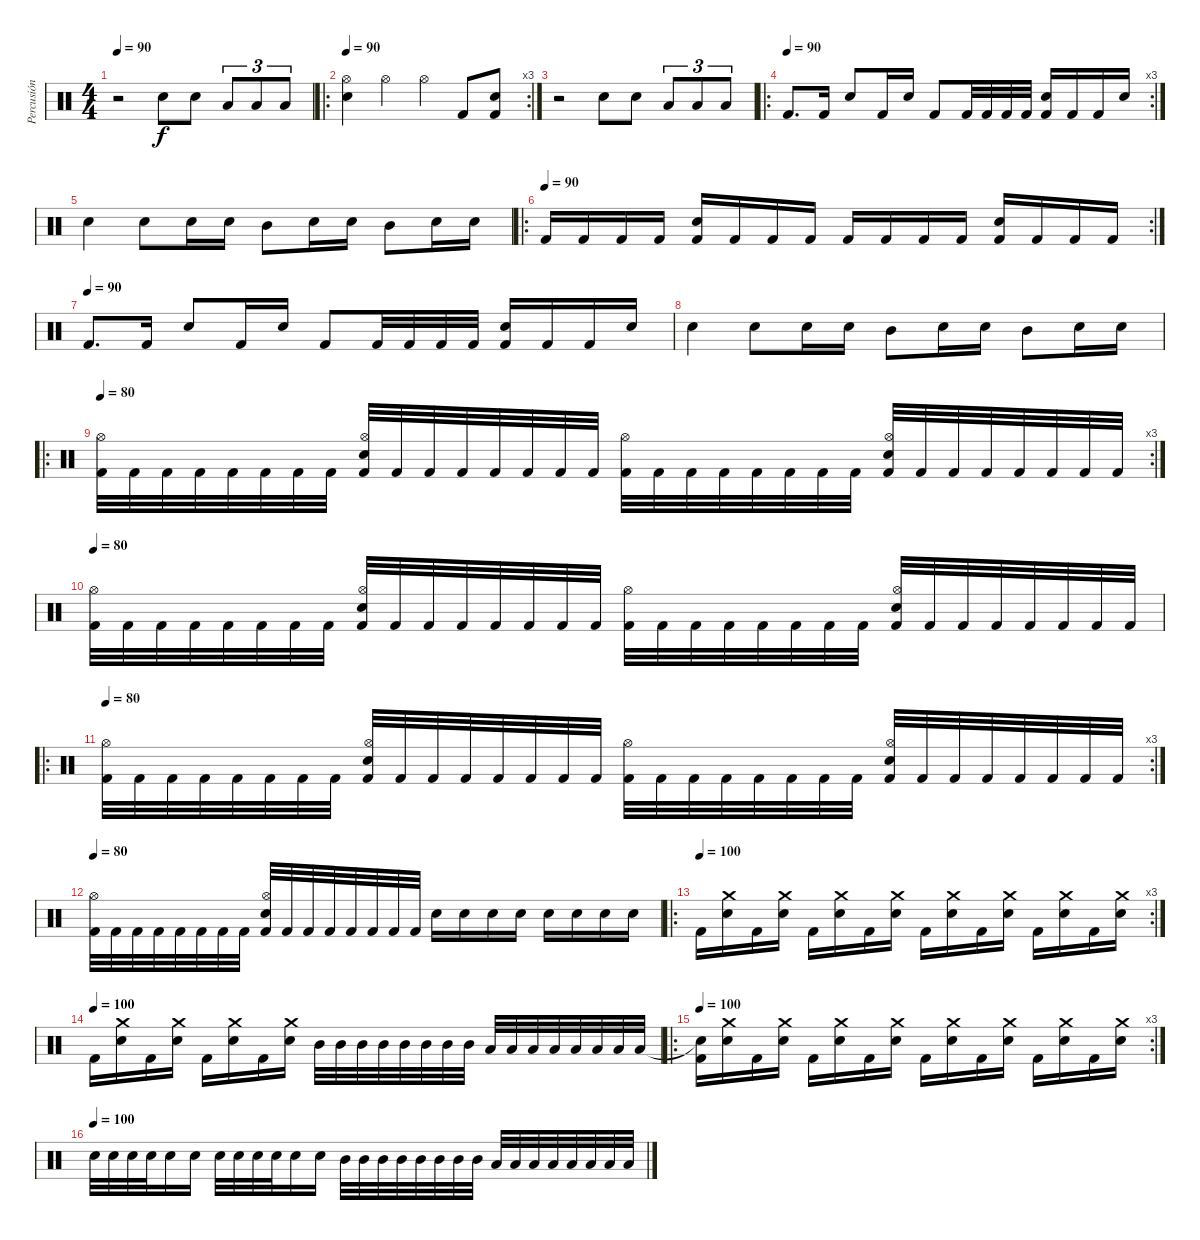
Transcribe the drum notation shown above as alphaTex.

\track ("Percusión" "Percusión") {instrument percussion}
\staff {score}
\articulation defaults
\ts (4 4)
\tempo 90
\clef neutral
\ks c
r.2{dy f} "Electric Snare (hit)".8 "Electric Snare (hit)".8 "Low Floor Tom (hit)".8{tu (3 2)} "Low Floor Tom (hit)".8{tu (3 2)} "Low Floor Tom (hit)".8{tu (3 2)} |
\ro
\rc 3
\tempo 90
("Hi-Hat (open)" "Snare (hit) 2").4 "Hi-Hat (open)".4 "Hi-Hat (open)".4 "Kick (hit) 2".8 ("Snare (hit) 2" "Kick (hit) 2").8 |
r.2 "Electric Snare (hit)".8 "Electric Snare (hit)".8 "Low Floor Tom (hit)".8{tu (3 2)} "Low Floor Tom (hit)".8{tu (3 2)} "Low Floor Tom (hit)".8{tu (3 2)} |
\ro
\rc 3
\tempo (90)
"Kick (hit) 2".8{d} "Kick (hit) 2".16 "Snare (hit) 2".8 "Kick (hit) 2".16 "Snare (hit) 2".16 "Kick (hit) 2".8 "Kick (hit) 2".32 "Kick (hit) 2".32 "Kick (hit) 2".32 "Kick (hit) 2".32 ("Snare (hit) 2" "Kick (hit) 2").16 "Kick (hit) 2".16 "Kick (hit) 2".16 "Snare (hit) 2".16 |
"Electric Snare (hit)".4 "Electric Snare (hit)".8 "Electric Snare (hit)".16 "Electric Snare (hit)".16 "Mid Tom (hit)".8 "Electric Snare (hit)".16 "Electric Snare (hit)".16 "Mid Tom (hit)".8 "Electric Snare (hit)".16 "Electric Snare (hit)".16 |
\ro
\rc 2
\tempo (90)
"Kick (hit) 2".16 "Kick (hit) 2".16 "Kick (hit) 2".16 "Kick (hit) 2".16 ("Electric Snare (hit)" "Kick (hit) 2").16 "Kick (hit) 2".16 "Kick (hit) 2".16 "Kick (hit) 2".16 "Kick (hit) 2".16 "Kick (hit) 2".16 "Kick (hit) 2".16 "Kick (hit) 2".16 ("Electric Snare (hit)" "Kick (hit) 2").16 "Kick (hit) 2".16 "Kick (hit) 2".16 "Kick (hit) 2".16 |
\tempo (90)
"Kick (hit) 2".8{d} "Kick (hit) 2".16 "Snare (hit) 2".8 "Kick (hit) 2".16 "Snare (hit) 2".16 "Kick (hit) 2".8 "Kick (hit) 2".32 "Kick (hit) 2".32 "Kick (hit) 2".32 "Kick (hit) 2".32 ("Snare (hit) 2" "Kick (hit) 2").16 "Kick (hit) 2".16 "Kick (hit) 2".16 "Snare (hit) 2".16 |
"Electric Snare (hit)".4 "Electric Snare (hit)".8 "Electric Snare (hit)".16 "Electric Snare (hit)".16 "Mid Tom (hit)".8 "Electric Snare (hit)".16 "Electric Snare (hit)".16 "Mid Tom (hit)".8 "Electric Snare (hit)".16 "Electric Snare (hit)".16 |
\ro
\rc 3
\tempo 90
\tempo 80
("Hi-Hat (open)" "Kick (hit) 2").32 "Kick (hit) 2".32 "Kick (hit) 2".32 "Kick (hit) 2".32 "Kick (hit) 2".32 "Kick (hit) 2".32 "Kick (hit) 2".32 "Kick (hit) 2".32 ("Hi-Hat (open)" "Electric Snare (hit)" "Kick (hit) 2").32 "Kick (hit) 2".32 "Kick (hit) 2".32 "Kick (hit) 2".32 "Kick (hit) 2".32 "Kick (hit) 2".32 "Kick (hit) 2".32 "Kick (hit) 2".32 ("Hi-Hat (open)" "Kick (hit) 2").32 "Kick (hit) 2".32 "Kick (hit) 2".32 "Kick (hit) 2".32 "Kick (hit) 2".32 "Kick (hit) 2".32 "Kick (hit) 2".32 "Kick (hit) 2".32 ("Hi-Hat (open)" "Electric Snare (hit)" "Kick (hit) 2").32 "Kick (hit) 2".32 "Kick (hit) 2".32 "Kick (hit) 2".32 "Kick (hit) 2".32 "Kick (hit) 2".32 "Kick (hit) 2".32 "Kick (hit) 2".32 |
\tempo 90
\tempo 80
("Hi-Hat (open)" "Kick (hit) 2").32 "Kick (hit) 2".32 "Kick (hit) 2".32 "Kick (hit) 2".32 "Kick (hit) 2".32 "Kick (hit) 2".32 "Kick (hit) 2".32 "Kick (hit) 2".32 ("Hi-Hat (open)" "Electric Snare (hit)" "Kick (hit) 2").32 "Kick (hit) 2".32 "Kick (hit) 2".32 "Kick (hit) 2".32 "Kick (hit) 2".32 "Kick (hit) 2".32 "Kick (hit) 2".32 "Kick (hit) 2".32 ("Hi-Hat (open)" "Kick (hit) 2").32 "Kick (hit) 2".32 "Kick (hit) 2".32 "Kick (hit) 2".32 "Kick (hit) 2".32 "Kick (hit) 2".32 "Kick (hit) 2".32 "Kick (hit) 2".32 ("Hi-Hat (open)" "Electric Snare (hit)" "Kick (hit) 2").32 "Kick (hit) 2".32 "Kick (hit) 2".32 "Kick (hit) 2".32 "Kick (hit) 2".32 "Kick (hit) 2".32 "Kick (hit) 2".32 "Kick (hit) 2".32 |
\ro
\rc 3
\tempo 90
\tempo 80
("Hi-Hat (open)" "Kick (hit) 2").32 "Kick (hit) 2".32 "Kick (hit) 2".32 "Kick (hit) 2".32 "Kick (hit) 2".32 "Kick (hit) 2".32 "Kick (hit) 2".32 "Kick (hit) 2".32 ("Hi-Hat (open)" "Electric Snare (hit)" "Kick (hit) 2").32 "Kick (hit) 2".32 "Kick (hit) 2".32 "Kick (hit) 2".32 "Kick (hit) 2".32 "Kick (hit) 2".32 "Kick (hit) 2".32 "Kick (hit) 2".32 ("Hi-Hat (open)" "Kick (hit) 2").32 "Kick (hit) 2".32 "Kick (hit) 2".32 "Kick (hit) 2".32 "Kick (hit) 2".32 "Kick (hit) 2".32 "Kick (hit) 2".32 "Kick (hit) 2".32 ("Hi-Hat (open)" "Electric Snare (hit)" "Kick (hit) 2").32 "Kick (hit) 2".32 "Kick (hit) 2".32 "Kick (hit) 2".32 "Kick (hit) 2".32 "Kick (hit) 2".32 "Kick (hit) 2".32 "Kick (hit) 2".32 |
\tempo 90
\tempo 80
("Hi-Hat (open)" "Kick (hit) 2").32 "Kick (hit) 2".32 "Kick (hit) 2".32 "Kick (hit) 2".32 "Kick (hit) 2".32 "Kick (hit) 2".32 "Kick (hit) 2".32 "Kick (hit) 2".32 ("Hi-Hat (open)" "Electric Snare (hit)" "Kick (hit) 2").32 "Kick (hit) 2".32 "Kick (hit) 2".32 "Kick (hit) 2".32 "Kick (hit) 2".32 "Kick (hit) 2".32 "Kick (hit) 2".32 "Kick (hit) 2".32 "Electric Snare (hit)".16 "Electric Snare (hit)".16 "Electric Snare (hit)".16 "Electric Snare (hit)".16 "Snare (hit) 2".16 "Snare (hit) 2".16 "Snare (hit) 2".16 "Snare (hit) 2".16 |
\ro
\rc 3
\tempo (100)
"Kick (hit) 2".16 ("Crash medium (hit)" "Snare (hit) 2").16 "Kick (hit) 2".16 ("Crash medium (hit)" "Snare (hit) 2").16 "Kick (hit) 2".16 ("Crash medium (hit)" "Snare (hit) 2").16 "Kick (hit) 2".16 ("Crash medium (hit)" "Snare (hit) 2").16 "Kick (hit) 2".16 ("Crash medium (hit)" "Snare (hit) 2").16 "Kick (hit) 2".16 ("Crash medium (hit)" "Snare (hit) 2").16 "Kick (hit) 2".16 ("Crash medium (hit)" "Snare (hit) 2").16 "Kick (hit) 2".16 ("Crash medium (hit)" "Snare (hit) 2").16 |
\tempo (100)
"Kick (hit) 2".16 ("Crash medium (hit)" "Snare (hit) 2").16 "Kick (hit) 2".16 ("Crash medium (hit)" "Snare (hit) 2").16 "Kick (hit) 2".16 ("Crash medium (hit)" "Snare (hit) 2").16 "Kick (hit) 2".16 ("Crash medium (hit)" "Snare (hit) 2").16 "Mid Tom (hit)".32 "Mid Tom (hit)".32 "Mid Tom (hit)".32 "Mid Tom (hit)".32 "Mid Tom (hit)".32 "Mid Tom (hit)".32 "Mid Tom (hit)".32 "Mid Tom (hit)".32 "Low Tom (hit)".32 "Low Tom (hit)".32 "Low Tom (hit)".32 "Low Tom (hit)".32 "Low Tom (hit)".32 "Low Tom (hit)".32 "Low Tom (hit)".32 "Low Tom (hit)".32 |
\ro
\rc 3
\tempo 100
("Snare (hit)"{t} "Kick (hit) 2").16 ("Crash medium (hit)" "Snare (hit) 2").16 "Kick (hit) 2".16 ("Crash medium (hit)" "Snare (hit) 2").16 "Kick (hit) 2".16 ("Crash medium (hit)" "Snare (hit) 2").16 "Kick (hit) 2".16 ("Crash medium (hit)" "Snare (hit) 2").16 "Kick (hit) 2".16 ("Crash medium (hit)" "Snare (hit) 2").16 "Kick (hit) 2".16 ("Crash medium (hit)" "Snare (hit) 2").16 "Kick (hit) 2".16 ("Crash medium (hit)" "Snare (hit) 2").16 "Kick (hit) 2".16 ("Crash medium (hit)" "Snare (hit) 2").16 |
\tempo (100)
"Electric Snare (hit)".32 "Electric Snare (hit)".32 "Electric Snare (hit)".32 "Electric Snare (hit)".32 "Snare (hit) 2".16 "Snare (hit) 2".16 "Electric Snare (hit)".32 "Electric Snare (hit)".32 "Electric Snare (hit)".32 "Electric Snare (hit)".32 "Snare (hit) 2".16 "Snare (hit) 2".16 "Mid Tom (hit)".32 "Mid Tom (hit)".32 "Mid Tom (hit)".32 "Mid Tom (hit)".32 "Mid Tom (hit)".32 "Mid Tom (hit)".32 "Mid Tom (hit)".32 "Mid Tom (hit)".32 "Low Tom (hit)".32 "Low Tom (hit)".32 "Low Tom (hit)".32 "Low Tom (hit)".32 "Low Tom (hit)".32 "Low Tom (hit)".32 "Low Tom (hit)".32 "Low Tom (hit)".32
